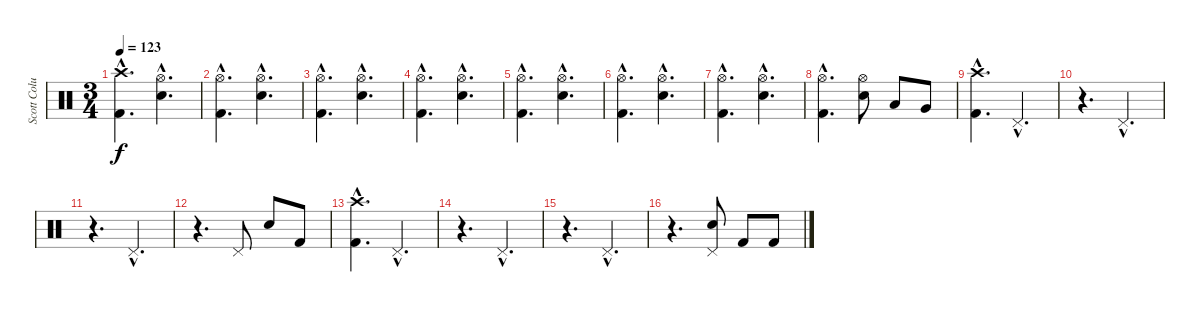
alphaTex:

\track ("Scott Columbus" "Scott Colu") {instrument percussion}
\staff {score}
\articulation defaults
\ts (3 4)
\tempo 123
\clef neutral
\ks c
("Crash high (hit)"{hac} "Kick (hit) 2"{hac}).4{d dy f} ("Hi-Hat (open)"{hac} "Snare (hit) 2"{hac}).4{d} |
("Hi-Hat (open)"{hac} "Kick (hit) 2"{hac}).4{d} ("Hi-Hat (open)"{hac} "Snare (hit) 2"{hac}).4{d} |
("Hi-Hat (open)"{hac} "Kick (hit) 2"{hac}).4{d} ("Hi-Hat (open)"{hac} "Snare (hit) 2"{hac}).4{d} |
("Hi-Hat (open)"{hac} "Kick (hit) 2"{hac}).4{d} ("Hi-Hat (open)"{hac} "Snare (hit) 2"{hac}).4{d} |
("Hi-Hat (open)"{hac} "Kick (hit) 2"{hac}).4{d} ("Hi-Hat (open)"{hac} "Snare (hit) 2"{hac}).4{d} |
("Hi-Hat (open)"{hac} "Kick (hit) 2"{hac}).4{d} ("Hi-Hat (open)"{hac} "Snare (hit) 2"{hac}).4{d} |
("Hi-Hat (open)"{hac} "Kick (hit) 2"{hac}).4{d} ("Hi-Hat (open)"{hac} "Snare (hit) 2"{hac}).4{d} |
("Hi-Hat (open)"{hac} "Kick (hit) 2"{hac}).4{d} ("Hi-Hat (open)" "Snare (hit) 2").8 "Low Tom (hit)".8 "Very Low Tom (hit)".8 |
("Crash high (hit)"{hac} "Kick (hit) 2"{hac}).4{d} "Pedal Hi-Hat (hit)"{hac}.4{d} |
r.4{d} "Pedal Hi-Hat (hit)"{hac}.4{d} |
r.4{d} "Pedal Hi-Hat (hit)"{hac}.4{d} |
r.4{d} "Pedal Hi-Hat (hit)".8 "Snare (hit) 2".8 "Kick (hit) 2".8 |
("Crash high (hit)"{hac} "Kick (hit) 2"{hac}).4{d} "Pedal Hi-Hat (hit)"{hac}.4{d} |
r.4{d} "Pedal Hi-Hat (hit)"{hac}.4{d} |
r.4{d} "Pedal Hi-Hat (hit)"{hac}.4{d} |
r.4{d} ("Pedal Hi-Hat (hit)" "Snare (hit) 2").8 "Kick (hit) 2".8 "Kick (hit) 2".8
